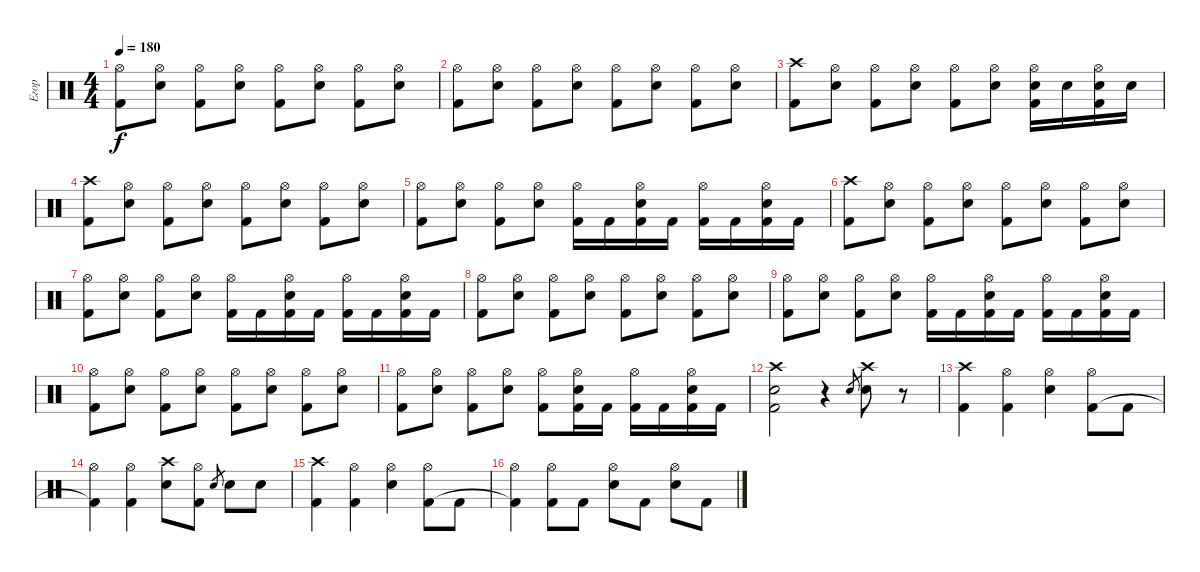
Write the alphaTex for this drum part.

\track ("Егор" "Егор") {instrument percussion}
\staff {score}
\articulation defaults
\ts (4 4)
\tempo 180
\clef neutral
\ks c
("Hi-Hat (open)" "Kick (hit) 2").8{dy f} ("Hi-Hat (open)" "Electric Snare (hit)").8 ("Hi-Hat (open)" "Kick (hit) 2").8 ("Hi-Hat (open)" "Electric Snare (hit)").8 ("Hi-Hat (open)" "Kick (hit) 2").8 ("Hi-Hat (open)" "Electric Snare (hit)").8 ("Hi-Hat (open)" "Kick (hit) 2").8 ("Hi-Hat (open)" "Electric Snare (hit)").8 |
("Hi-Hat (open)" "Kick (hit) 2").8 ("Hi-Hat (open)" "Electric Snare (hit)").8 ("Hi-Hat (open)" "Kick (hit) 2").8 ("Hi-Hat (open)" "Electric Snare (hit)").8 ("Hi-Hat (open)" "Kick (hit) 2").8 ("Hi-Hat (open)" "Electric Snare (hit)").8 ("Hi-Hat (open)" "Kick (hit) 2").8 ("Hi-Hat (open)" "Electric Snare (hit)").8 |
("Crash high (hit)" "Kick (hit) 2").8 ("Hi-Hat (open)" "Electric Snare (hit)").8 ("Hi-Hat (open)" "Kick (hit) 2").8 ("Hi-Hat (open)" "Electric Snare (hit)").8 ("Hi-Hat (open)" "Kick (hit) 2").8 ("Hi-Hat (open)" "Electric Snare (hit)").8 ("Hi-Hat (open)" "Electric Snare (hit)" "Kick (hit) 2").16 "Electric Snare (hit)".16 ("Hi-Hat (open)" "Electric Snare (hit)" "Kick (hit) 2").16 "Electric Snare (hit)".16 |
("Crash high (hit)" "Kick (hit) 2").8 ("Hi-Hat (open)" "Electric Snare (hit)").8 ("Hi-Hat (open)" "Kick (hit) 2").8 ("Hi-Hat (open)" "Electric Snare (hit)").8 ("Hi-Hat (open)" "Kick (hit) 2").8 ("Hi-Hat (open)" "Electric Snare (hit)").8 ("Hi-Hat (open)" "Kick (hit) 2").8 ("Hi-Hat (open)" "Electric Snare (hit)").8 |
("Hi-Hat (open)" "Kick (hit) 2").8 ("Hi-Hat (open)" "Electric Snare (hit)").8 ("Hi-Hat (open)" "Kick (hit) 2").8 ("Hi-Hat (open)" "Electric Snare (hit)").8 ("Hi-Hat (open)" "Kick (hit) 2").16 "Kick (hit) 2".16 ("Hi-Hat (open)" "Electric Snare (hit)" "Kick (hit) 2").16 "Kick (hit) 2".16 ("Hi-Hat (open)" "Kick (hit) 2").16 "Kick (hit) 2".16 ("Hi-Hat (open)" "Electric Snare (hit)" "Kick (hit) 2").16 "Kick (hit) 2".16 |
("Crash high (hit)" "Kick (hit) 2").8 ("Hi-Hat (open)" "Electric Snare (hit)").8 ("Hi-Hat (open)" "Kick (hit) 2").8 ("Hi-Hat (open)" "Electric Snare (hit)").8 ("Hi-Hat (open)" "Kick (hit) 2").8 ("Hi-Hat (open)" "Electric Snare (hit)").8 ("Hi-Hat (open)" "Kick (hit) 2").8 ("Hi-Hat (open)" "Electric Snare (hit)").8 |
("Hi-Hat (open)" "Kick (hit) 2").8 ("Hi-Hat (open)" "Electric Snare (hit)").8 ("Hi-Hat (open)" "Kick (hit) 2").8 ("Hi-Hat (open)" "Electric Snare (hit)").8 ("Hi-Hat (open)" "Kick (hit) 2").16 "Kick (hit) 2".16 ("Hi-Hat (open)" "Electric Snare (hit)" "Kick (hit) 2").16 "Kick (hit) 2".16 ("Hi-Hat (open)" "Kick (hit) 2").16 "Kick (hit) 2".16 ("Hi-Hat (open)" "Electric Snare (hit)" "Kick (hit) 2").16 "Kick (hit) 2".16 |
("Hi-Hat (open)" "Kick (hit) 2").8 ("Hi-Hat (open)" "Electric Snare (hit)").8 ("Hi-Hat (open)" "Kick (hit) 2").8 ("Hi-Hat (open)" "Electric Snare (hit)").8 ("Hi-Hat (open)" "Kick (hit) 2").8 ("Hi-Hat (open)" "Electric Snare (hit)").8 ("Hi-Hat (open)" "Kick (hit) 2").8 ("Hi-Hat (open)" "Electric Snare (hit)").8 |
("Hi-Hat (open)" "Kick (hit) 2").8 ("Hi-Hat (open)" "Electric Snare (hit)").8 ("Hi-Hat (open)" "Kick (hit) 2").8 ("Hi-Hat (open)" "Electric Snare (hit)").8 ("Hi-Hat (open)" "Kick (hit) 2").16 "Kick (hit) 2".16 ("Hi-Hat (open)" "Electric Snare (hit)" "Kick (hit) 2").16 "Kick (hit) 2".16 ("Hi-Hat (open)" "Kick (hit) 2").16 "Kick (hit) 2".16 ("Hi-Hat (open)" "Electric Snare (hit)" "Kick (hit) 2").16 "Kick (hit) 2".16 |
("Hi-Hat (open)" "Kick (hit) 2").8 ("Hi-Hat (open)" "Electric Snare (hit)").8 ("Hi-Hat (open)" "Kick (hit) 2").8 ("Hi-Hat (open)" "Electric Snare (hit)").8 ("Hi-Hat (open)" "Kick (hit) 2").8 ("Hi-Hat (open)" "Electric Snare (hit)").8 ("Hi-Hat (open)" "Kick (hit) 2").8 ("Hi-Hat (open)" "Electric Snare (hit)").8 |
("Hi-Hat (open)" "Kick (hit) 2").8 ("Hi-Hat (open)" "Electric Snare (hit)").8 ("Hi-Hat (open)" "Kick (hit) 2").8 ("Hi-Hat (open)" "Electric Snare (hit)").8 ("Hi-Hat (open)" "Kick (hit) 2").8 ("Hi-Hat (open)" "Electric Snare (hit)" "Kick (hit) 2").16 "Kick (hit) 2".16 ("Hi-Hat (open)" "Kick (hit) 2").16 "Kick (hit) 2".16 ("Hi-Hat (open)" "Electric Snare (hit)" "Kick (hit) 2").16 "Kick (hit) 2".16 |
("Crash high (hit)" "Electric Snare (hit)" "Kick (hit) 2").2 r.4 "Electric Snare (hit)".8{gr} ("Crash high (hit)" "Electric Snare (hit)").8 r.8 |
("Crash high (hit)" "Kick (hit) 2").4 ("Hi-Hat (open)" "Kick (hit) 2").4 ("Hi-Hat (open)" "Electric Snare (hit)").4 ("Hi-Hat (open)" "Kick (hit) 2").8 "Kick (hit) 2".8 |
("Hi-Hat (open)" "Kick (hit) 2"{t}).4 ("Hi-Hat (open)" "Kick (hit) 2").4 ("Crash high (hit)" "Electric Snare (hit)").8 ("Hi-Hat (open)" "Kick (hit) 2").8 "Electric Snare (hit)".8{gr} "Electric Snare (hit)".8 "Electric Snare (hit)".8 |
("Crash high (hit)" "Kick (hit) 2").4 ("Hi-Hat (open)" "Kick (hit) 2").4 ("Hi-Hat (open)" "Electric Snare (hit)").4 ("Hi-Hat (open)" "Kick (hit) 2").8 "Kick (hit) 2".8 |
("Hi-Hat (open)" "Kick (hit) 2"{t}).4 ("Hi-Hat (open)" "Kick (hit) 2").8 "Kick (hit) 2".8 ("Hi-Hat (open)" "Electric Snare (hit)").8 "Kick (hit) 2".8 ("Hi-Hat (open)" "Electric Snare (hit)").8 "Kick (hit) 2".8
